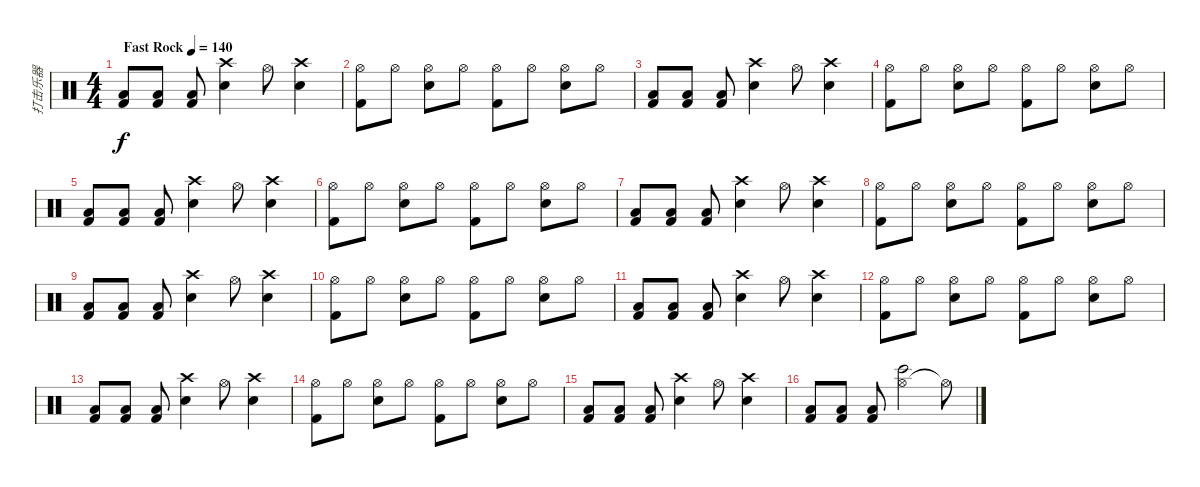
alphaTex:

\track ("打击乐器" "打击乐器") {instrument percussion}
\staff {score}
\articulation defaults
\ts (4 4)
\tempo (140 "Fast Rock")
\clef neutral
\ks c
("Low Floor Tom (hit)" "Kick (hit) 2").8{dy f} ("Low Floor Tom (hit)" "Kick (hit) 2").8 ("Low Floor Tom (hit)" "Kick (hit) 2").8 ("Crash high (hit)" "Snare (hit) 2").4 "Hi-Hat (open)".8 ("Crash high (hit)" "Snare (hit) 2").4 |
("Hi-Hat (open)" "Kick (hit) 2").8 "Hi-Hat (open)".8 ("Hi-Hat (open)" "Snare (hit) 2").8 "Hi-Hat (open)".8 ("Hi-Hat (open)" "Kick (hit) 2").8 "Hi-Hat (open)".8 ("Hi-Hat (open)" "Snare (hit) 2").8 "Hi-Hat (open)".8 |
("Low Floor Tom (hit)" "Kick (hit) 2").8 ("Low Floor Tom (hit)" "Kick (hit) 2").8 ("Low Floor Tom (hit)" "Kick (hit) 2").8 ("Crash high (hit)" "Snare (hit) 2").4 "Hi-Hat (open)".8 ("Crash high (hit)" "Snare (hit) 2").4 |
("Hi-Hat (open)" "Kick (hit) 2").8 "Hi-Hat (open)".8 ("Hi-Hat (open)" "Snare (hit) 2").8 "Hi-Hat (open)".8 ("Hi-Hat (open)" "Kick (hit) 2").8 "Hi-Hat (open)".8 ("Hi-Hat (open)" "Snare (hit) 2").8 "Hi-Hat (open)".8 |
("Low Floor Tom (hit)" "Kick (hit) 2").8 ("Low Floor Tom (hit)" "Kick (hit) 2").8 ("Low Floor Tom (hit)" "Kick (hit) 2").8 ("Crash high (hit)" "Snare (hit) 2").4 "Hi-Hat (open)".8 ("Crash high (hit)" "Snare (hit) 2").4 |
("Hi-Hat (open)" "Kick (hit) 2").8 "Hi-Hat (open)".8 ("Hi-Hat (open)" "Snare (hit) 2").8 "Hi-Hat (open)".8 ("Hi-Hat (open)" "Kick (hit) 2").8 "Hi-Hat (open)".8 ("Hi-Hat (open)" "Snare (hit) 2").8 "Hi-Hat (open)".8 |
("Low Floor Tom (hit)" "Kick (hit) 2").8 ("Low Floor Tom (hit)" "Kick (hit) 2").8 ("Low Floor Tom (hit)" "Kick (hit) 2").8 ("Crash high (hit)" "Snare (hit) 2").4 "Hi-Hat (open)".8 ("Crash high (hit)" "Snare (hit) 2").4 |
("Hi-Hat (open)" "Kick (hit) 2").8 "Hi-Hat (open)".8 ("Hi-Hat (open)" "Snare (hit) 2").8 "Hi-Hat (open)".8 ("Hi-Hat (open)" "Kick (hit) 2").8 "Hi-Hat (open)".8 ("Hi-Hat (open)" "Snare (hit) 2").8 "Hi-Hat (open)".8 |
("Low Floor Tom (hit)" "Kick (hit) 2").8 ("Low Floor Tom (hit)" "Kick (hit) 2").8 ("Low Floor Tom (hit)" "Kick (hit) 2").8 ("Crash high (hit)" "Snare (hit) 2").4 "Hi-Hat (open)".8 ("Crash high (hit)" "Snare (hit) 2").4 |
("Hi-Hat (open)" "Kick (hit) 2").8 "Hi-Hat (open)".8 ("Hi-Hat (open)" "Snare (hit) 2").8 "Hi-Hat (open)".8 ("Hi-Hat (open)" "Kick (hit) 2").8 "Hi-Hat (open)".8 ("Hi-Hat (open)" "Snare (hit) 2").8 "Hi-Hat (open)".8 |
("Low Floor Tom (hit)" "Kick (hit) 2").8 ("Low Floor Tom (hit)" "Kick (hit) 2").8 ("Low Floor Tom (hit)" "Kick (hit) 2").8 ("Crash high (hit)" "Snare (hit) 2").4 "Hi-Hat (open)".8 ("Crash high (hit)" "Snare (hit) 2").4 |
("Hi-Hat (open)" "Kick (hit) 2").8 "Hi-Hat (open)".8 ("Hi-Hat (open)" "Snare (hit) 2").8 "Hi-Hat (open)".8 ("Hi-Hat (open)" "Kick (hit) 2").8 "Hi-Hat (open)".8 ("Hi-Hat (open)" "Snare (hit) 2").8 "Hi-Hat (open)".8 |
("Low Floor Tom (hit)" "Kick (hit) 2").8 ("Low Floor Tom (hit)" "Kick (hit) 2").8 ("Low Floor Tom (hit)" "Kick (hit) 2").8 ("Crash high (hit)" "Snare (hit) 2").4 "Hi-Hat (open)".8 ("Crash high (hit)" "Snare (hit) 2").4 |
("Hi-Hat (open)" "Kick (hit) 2").8 "Hi-Hat (open)".8 ("Hi-Hat (open)" "Snare (hit) 2").8 "Hi-Hat (open)".8 ("Hi-Hat (open)" "Kick (hit) 2").8 "Hi-Hat (open)".8 ("Hi-Hat (open)" "Snare (hit) 2").8 "Hi-Hat (open)".8 |
("Low Floor Tom (hit)" "Kick (hit) 2").8 ("Low Floor Tom (hit)" "Kick (hit) 2").8 ("Low Floor Tom (hit)" "Kick (hit) 2").8 ("Crash high (hit)" "Snare (hit) 2").4 "Hi-Hat (open)".8 ("Crash high (hit)" "Snare (hit) 2").4 |
("Low Floor Tom (hit)" "Kick (hit) 2").8 ("Low Floor Tom (hit)" "Kick (hit) 2").8 ("Low Floor Tom (hit)" "Kick (hit) 2").8 ("Hi-Hat (open)" "Bongo High (hit)").2 "Hi-Hat (open)"{t}.8
